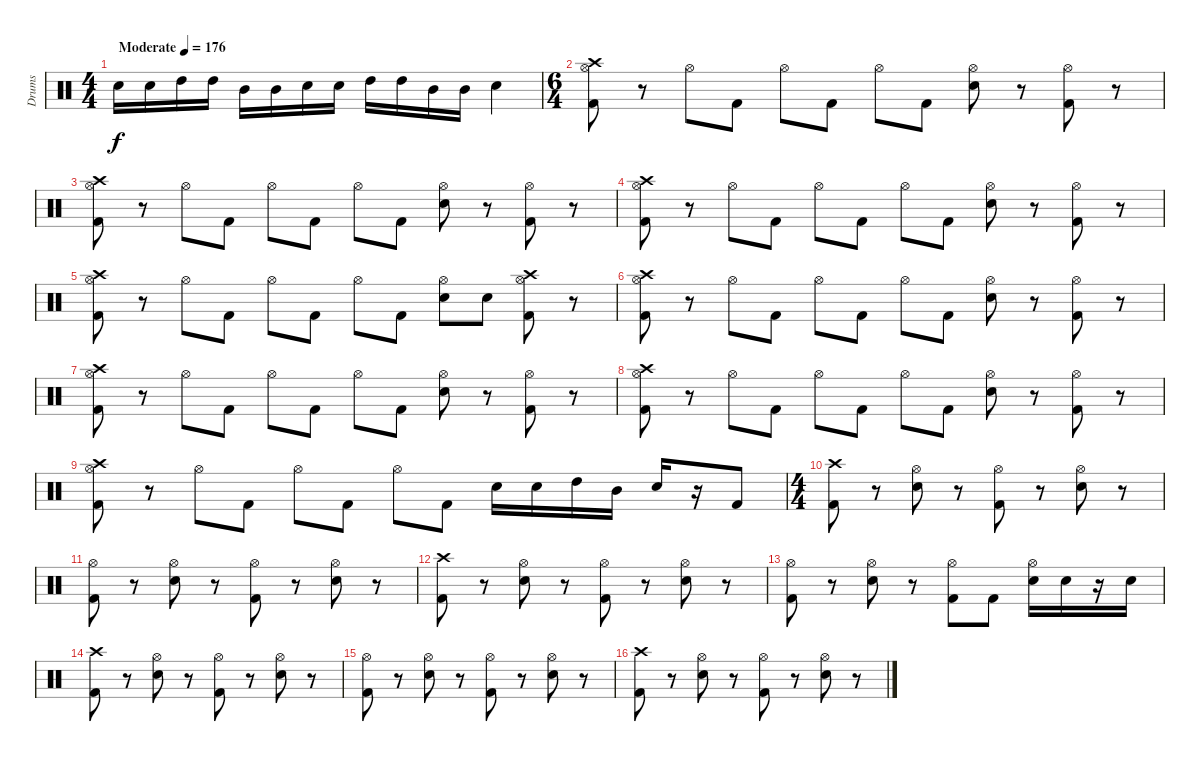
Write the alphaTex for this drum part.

\track ("Drums" "Drums") {instrument percussion}
\staff {score}
\articulation defaults
\ts (4 4)
\tempo (176 "Moderate")
\clef neutral
\ks c "Electric Snare (hit)".16{dy f} "Electric Snare (hit)".16 "High Tom (hit)".16 "High Tom (hit)".16 "Mid Tom (hit)".16 "Mid Tom (hit)".16 "Electric Snare (hit)".16 "Electric Snare (hit)".16 "High Tom (hit)".16 "High Tom (hit)".16 "Mid Tom (hit)".16 "Mid Tom (hit)".16 "Electric Snare (hit)".4
|
\ts (6 4)
("Crash high (hit)" "Hi-Hat (open)" "Kick (hit) 2").8 r.8 "Hi-Hat (open)".8 "Kick (hit) 2".8 "Hi-Hat (open)".8 "Kick (hit) 2".8 "Hi-Hat (open)".8 "Kick (hit) 2".8 ("Electric Snare (hit)" "Hi-Hat (open)").8 r.8 ("Hi-Hat (open)" "Kick (hit) 2").8 r.8 |
("Crash high (hit)" "Hi-Hat (open)" "Kick (hit) 2").8 r.8 "Hi-Hat (open)".8 "Kick (hit) 2".8 "Hi-Hat (open)".8 "Kick (hit) 2".8 "Hi-Hat (open)".8 "Kick (hit) 2".8 ("Electric Snare (hit)" "Hi-Hat (open)").8 r.8 ("Hi-Hat (open)" "Kick (hit) 2").8 r.8 |
("Crash high (hit)" "Hi-Hat (open)" "Kick (hit) 2").8 r.8 "Hi-Hat (open)".8 "Kick (hit) 2".8 "Hi-Hat (open)".8 "Kick (hit) 2".8 "Hi-Hat (open)".8 "Kick (hit) 2".8 ("Electric Snare (hit)" "Hi-Hat (open)").8 r.8 ("Hi-Hat (open)" "Kick (hit) 2").8 r.8 |
("Crash high (hit)" "Hi-Hat (open)" "Kick (hit) 2").8 r.8 "Hi-Hat (open)".8 "Kick (hit) 2".8 "Hi-Hat (open)".8 "Kick (hit) 2".8 "Hi-Hat (open)".8 "Kick (hit) 2".8 ("Electric Snare (hit)" "Hi-Hat (open)").8 "Electric Snare (hit)".8 ("Crash high (hit)" "Hi-Hat (open)" "Kick (hit) 2").8 r.8 |
("Crash high (hit)" "Hi-Hat (open)" "Kick (hit) 2").8 r.8 "Hi-Hat (open)".8 "Kick (hit) 2".8 "Hi-Hat (open)".8 "Kick (hit) 2".8 "Hi-Hat (open)".8 "Kick (hit) 2".8 ("Electric Snare (hit)" "Hi-Hat (open)").8 r.8 ("Hi-Hat (open)" "Kick (hit) 2").8 r.8 |
("Crash high (hit)" "Hi-Hat (open)" "Kick (hit) 2").8 r.8 "Hi-Hat (open)".8 "Kick (hit) 2".8 "Hi-Hat (open)".8 "Kick (hit) 2".8 "Hi-Hat (open)".8 "Kick (hit) 2".8 ("Electric Snare (hit)" "Hi-Hat (open)").8 r.8 ("Hi-Hat (open)" "Kick (hit) 2").8 r.8 |
("Crash high (hit)" "Hi-Hat (open)" "Kick (hit) 2").8 r.8 "Hi-Hat (open)".8 "Kick (hit) 2".8 "Hi-Hat (open)".8 "Kick (hit) 2".8 "Hi-Hat (open)".8 "Kick (hit) 2".8 ("Electric Snare (hit)" "Hi-Hat (open)").8 r.8 ("Hi-Hat (open)" "Kick (hit) 2").8 r.8 |
("Crash high (hit)" "Hi-Hat (open)" "Kick (hit) 2").8 r.8 "Hi-Hat (open)".8 "Kick (hit) 2".8 "Hi-Hat (open)".8 "Kick (hit) 2".8 "Hi-Hat (open)".8 "Kick (hit) 2".8 "Electric Snare (hit)".16 "Electric Snare (hit)".16 "High Tom (hit)".16 "Mid Tom (hit)".16 "Electric Snare (hit)".16 r.16 "Kick (hit) 2".8 |
\ts (4 4)
("Crash high (hit)" "Kick (hit) 2").8 r.8 ("Electric Snare (hit)" "Hi-Hat (open)").8 r.8 ("Hi-Hat (open)" "Kick (hit) 2").8 r.8 ("Electric Snare (hit)" "Hi-Hat (open)").8 r.8 |
("Hi-Hat (open)" "Kick (hit) 2").8 r.8 ("Electric Snare (hit)" "Hi-Hat (open)").8 r.8 ("Hi-Hat (open)" "Kick (hit) 2").8 r.8 ("Electric Snare (hit)" "Hi-Hat (open)").8 r.8 |
("Crash high (hit)" "Kick (hit) 2").8 r.8 ("Electric Snare (hit)" "Hi-Hat (open)").8 r.8 ("Hi-Hat (open)" "Kick (hit) 2").8 r.8 ("Electric Snare (hit)" "Hi-Hat (open)").8 r.8 |
("Hi-Hat (open)" "Kick (hit) 2").8 r.8 ("Electric Snare (hit)" "Hi-Hat (open)").8 r.8 ("Hi-Hat (open)" "Kick (hit) 2").8 "Kick (hit) 2".8 ("Electric Snare (hit)" "Hi-Hat (open)").16 "Electric Snare (hit)".16 r.16 "Electric Snare (hit)".16 |
("Crash high (hit)" "Kick (hit) 2").8 r.8 ("Electric Snare (hit)" "Hi-Hat (open)").8 r.8 ("Hi-Hat (open)" "Kick (hit) 2").8 r.8 ("Electric Snare (hit)" "Hi-Hat (open)").8 r.8 |
("Hi-Hat (open)" "Kick (hit) 2").8 r.8 ("Electric Snare (hit)" "Hi-Hat (open)").8 r.8 ("Hi-Hat (open)" "Kick (hit) 2").8 r.8 ("Electric Snare (hit)" "Hi-Hat (open)").8 r.8 |
("Crash high (hit)" "Kick (hit) 2").8 r.8 ("Electric Snare (hit)" "Hi-Hat (open)").8 r.8 ("Hi-Hat (open)" "Kick (hit) 2").8 r.8 ("Electric Snare (hit)" "Hi-Hat (open)").8 r.8
